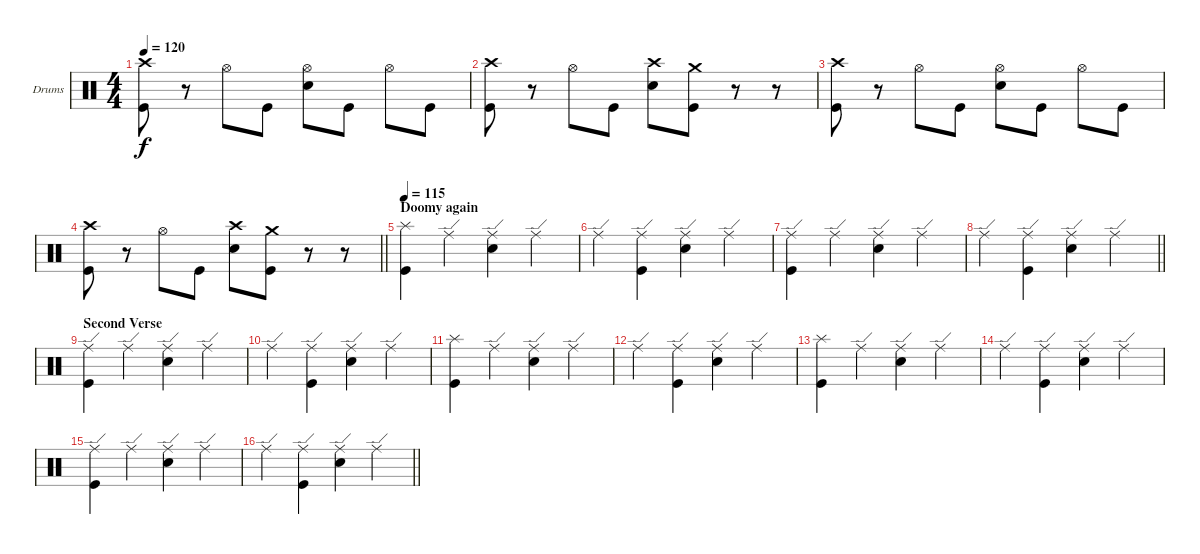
\bracketExtendMode groupsimilarinstruments
\firstSystemTrackNameOrientation horizontal
\otherSystemsTrackNameOrientation horizontal
\track ("Drumkit" "Drums") {instrument percussion}
\staff {score}
\articulation defaults
\ts (4 4)
\tempo 120
\clef neutral
\ks c
("Crash high (hit)" "Kick (hit)").8{dy f} r.8 "Hi-Hat (open)".8 "Kick (hit)".8 ("Hi-Hat (open)" "Snare (hit) 2").8 "Kick (hit)".8 "Hi-Hat (open)".8 "Kick (hit)".8 |
("Crash high (hit)" "Kick (hit)").8 r.8 "Hi-Hat (open)".8 "Kick (hit)".8 ("Crash high (hit)" "Snare (hit) 2").8 ("Crash medium (hit)" "Kick (hit)").8 r.8 r.8 |
("Crash high (hit)" "Kick (hit)").8 r.8 "Hi-Hat (open)".8 "Kick (hit)".8 ("Hi-Hat (open)" "Snare (hit) 2").8 "Kick (hit)".8 "Hi-Hat (open)".8 "Kick (hit)".8 |
\barLineRight lightlight
("Crash high (hit)" "Kick (hit)").8 r.8 "Hi-Hat (open)".8 "Kick (hit)".8 ("Crash high (hit)" "Snare (hit) 2").8 ("Crash medium (hit)" "Kick (hit)").8 r.8 r.8 |
\section ("" "Doomy again")
\tempo 115
("Splash (hit)" "Kick (hit)").4 "Ride (edge)".4 ("Ride (edge)" "Snare (hit) 2").4 "Ride (edge)".4 |
"Ride (edge)".4 ("Ride (edge)" "Kick (hit)").4 ("Ride (edge)" "Snare (hit) 2").4 "Ride (edge)".4 |
("Ride (edge)" "Kick (hit)").4 "Ride (edge)".4 ("Ride (edge)" "Snare (hit) 2").4 "Ride (edge)".4 |
\barLineRight lightlight "Ride (edge)".4
("Ride (edge)" "Kick (hit)").4 ("Ride (edge)" "Snare (hit) 2").4 "Ride (edge)".4 |
\section ("" "Second Verse")
("Ride (edge)" "Kick (hit)").4 "Ride (edge)".4 ("Ride (edge)" "Snare (hit) 2").4 "Ride (edge)".4 |
"Ride (edge)".4 ("Ride (edge)" "Kick (hit)").4 ("Ride (edge)" "Snare (hit) 2").4 "Ride (edge)".4 |
("Splash (hit)" "Kick (hit)").4 "Ride (edge)".4 ("Ride (edge)" "Snare (hit) 2").4 "Ride (edge)".4 |
"Ride (edge)".4 ("Ride (edge)" "Kick (hit)").4 ("Ride (edge)" "Snare (hit) 2").4 "Ride (edge)".4 |
("Splash (hit)" "Kick (hit)").4 "Ride (edge)".4 ("Ride (edge)" "Snare (hit) 2").4 "Ride (edge)".4 |
"Ride (edge)".4 ("Ride (edge)" "Kick (hit)").4 ("Ride (edge)" "Snare (hit) 2").4 "Ride (edge)".4 |
("Ride (edge)" "Kick (hit)").4 "Ride (edge)".4 ("Ride (edge)" "Snare (hit) 2").4 "Ride (edge)".4 |
\barLineRight lightlight "Ride (edge)".4
("Ride (edge)" "Kick (hit)").4 ("Ride (edge)" "Snare (hit) 2").4 "Ride (edge)".4
